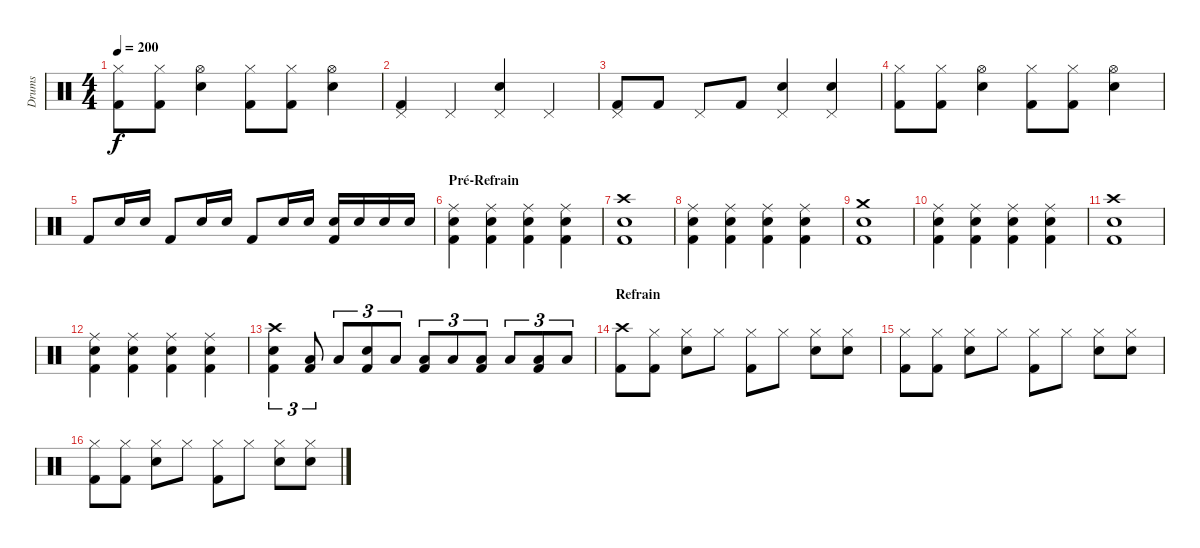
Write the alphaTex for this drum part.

\track ("Drums" "Drums") {instrument percussion}
\staff {score}
\articulation defaults
\ts (4 4)
\tempo 200
\clef neutral
\ks c
("Hi-Hat (closed)" "Kick (hit) 2").8{dy f} ("Hi-Hat (closed)" "Kick (hit) 2").8 ("Hi-Hat (open)" "Snare (hit) 2").4 ("Hi-Hat (closed)" "Kick (hit) 2").8 ("Hi-Hat (closed)" "Kick (hit) 2").8 ("Hi-Hat (open)" "Snare (hit) 2").4 |
("Pedal Hi-Hat (hit)" "Kick (hit) 2").4 "Pedal Hi-Hat (hit)".4 ("Pedal Hi-Hat (hit)" "Snare (hit) 2").4 "Pedal Hi-Hat (hit)".4 |
("Pedal Hi-Hat (hit)" "Kick (hit) 2").8 "Kick (hit) 2".8 "Pedal Hi-Hat (hit)".8 "Kick (hit) 2".8 ("Pedal Hi-Hat (hit)" "Snare (hit) 2").4 ("Pedal Hi-Hat (hit)" "Snare (hit) 2").4 |
("Hi-Hat (closed)" "Kick (hit) 2").8 ("Hi-Hat (closed)" "Kick (hit) 2").8 ("Hi-Hat (open)" "Snare (hit) 2").4 ("Hi-Hat (closed)" "Kick (hit) 2").8 ("Hi-Hat (closed)" "Kick (hit) 2").8 ("Hi-Hat (open)" "Snare (hit) 2").4 |
"Kick (hit) 2".8 "Snare (hit) 2".16 "Snare (hit) 2".16 "Kick (hit) 2".8 "Snare (hit) 2".16 "Snare (hit) 2".16 "Kick (hit) 2".8 "Snare (hit) 2".16 "Snare (hit) 2".16 ("Snare (hit) 2" "Kick (hit) 2").16 "Snare (hit) 2".16 "Snare (hit) 2".16 "Snare (hit) 2".16 |
\section ("" "Pré-Refrain")
("Ride (middle)" "Snare (hit) 2" "Kick (hit) 2").4 ("Ride (middle)" "Snare (hit) 2" "Kick (hit) 2").4 ("Ride (middle)" "Snare (hit) 2" "Kick (hit) 2").4 ("Ride (middle)" "Snare (hit) 2" "Kick (hit) 2").4 |
("Crash high (hit)" "Snare (hit) 2" "Kick (hit) 2").1 |
("Ride (middle)" "Snare (hit) 2" "Kick (hit) 2").4 ("Ride (middle)" "Snare (hit) 2" "Kick (hit) 2").4 ("Ride (middle)" "Snare (hit) 2" "Kick (hit) 2").4 ("Ride (middle)" "Snare (hit) 2" "Kick (hit) 2").4 |
("Crash medium (hit)" "Snare (hit) 2" "Kick (hit) 2").1 |
("Ride (middle)" "Snare (hit) 2" "Kick (hit) 2").4 ("Ride (middle)" "Snare (hit) 2" "Kick (hit) 2").4 ("Ride (middle)" "Snare (hit) 2" "Kick (hit) 2").4 ("Ride (middle)" "Snare (hit) 2" "Kick (hit) 2").4 |
("Crash high (hit)" "Snare (hit) 2" "Kick (hit) 2").1 |
("Ride (middle)" "Snare (hit) 2" "Kick (hit) 2").4 ("Ride (middle)" "Snare (hit) 2" "Kick (hit) 2").4 ("Ride (middle)" "Snare (hit) 2" "Kick (hit) 2").4 ("Ride (middle)" "Snare (hit) 2" "Kick (hit) 2").4 |
("Crash high (hit)" "Snare (hit) 2" "Kick (hit) 2").4{tu (3 2)} ("Low Floor Tom (hit)" "Kick (hit) 2").8{tu (3 2)} "Low Floor Tom (hit)".8{tu (3 2)} ("Snare (hit) 2" "Kick (hit) 2").8{tu (3 2)} "Low Tom (hit)".8{tu (3 2)} ("Low Tom (hit)" "Kick (hit) 2").8{tu (3 2)} "Low Floor Tom (hit)".8{tu (3 2)} ("Low Floor Tom (hit)" "Kick (hit) 2").8{tu (3 2)} "Low Tom (hit)".8{tu (3 2)} ("Low Floor Tom (hit)" "Kick (hit) 2").8{tu (3 2)} "Low Floor Tom (hit)".8{tu (3 2)} |
\section ("" "Refrain")
("Crash high (hit)" "Kick (hit) 2").8 ("Hi-Hat (closed)" "Kick (hit) 2").8 ("Hi-Hat (closed)" "Snare (hit) 2").8 "Hi-Hat (closed)".8 ("Hi-Hat (closed)" "Kick (hit) 2").8 "Hi-Hat (closed)".8 ("Hi-Hat (closed)" "Snare (hit) 2").8 ("Hi-Hat (closed)" "Snare (hit) 2").8 |
("Hi-Hat (closed)" "Kick (hit) 2").8 ("Hi-Hat (closed)" "Kick (hit) 2").8 ("Hi-Hat (closed)" "Snare (hit) 2").8 "Hi-Hat (closed)".8 ("Hi-Hat (closed)" "Kick (hit) 2").8 "Hi-Hat (closed)".8 ("Hi-Hat (closed)" "Snare (hit) 2").8 ("Hi-Hat (closed)" "Snare (hit) 2").8 |
("Hi-Hat (closed)" "Kick (hit) 2").8 ("Hi-Hat (closed)" "Kick (hit) 2").8 ("Hi-Hat (closed)" "Snare (hit) 2").8 "Hi-Hat (closed)".8 ("Hi-Hat (closed)" "Kick (hit) 2").8 "Hi-Hat (closed)".8 ("Hi-Hat (closed)" "Snare (hit) 2").8 ("Hi-Hat (closed)" "Snare (hit) 2").8
